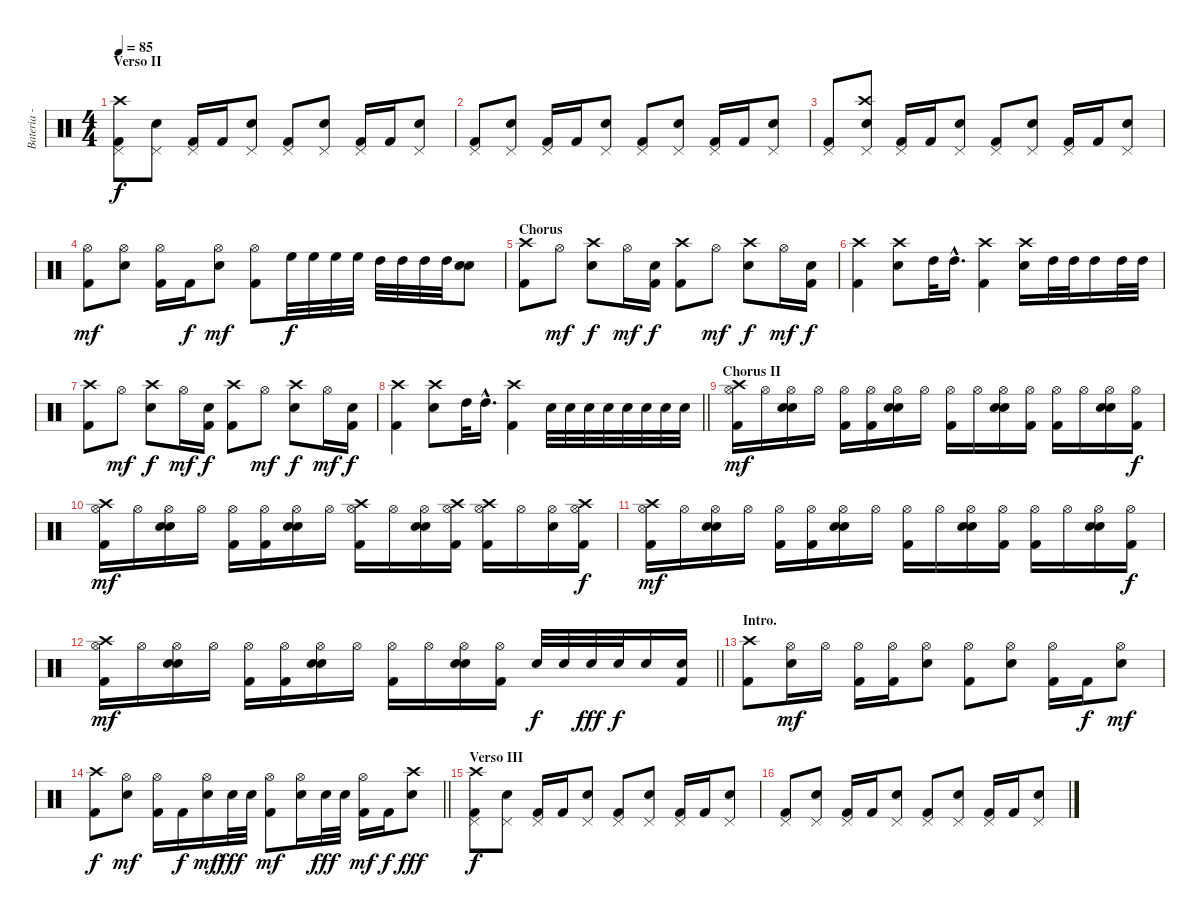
\track ("Bateria - Larzon" "Bateria - ") {instrument percussion}
\staff {score}
\articulation defaults
\ts (4 4)
\section ("" "Verso II")
\tempo 85
\clef neutral
\ks c
("Kick (hit) 2" "Pedal Hi-Hat (hit)" "Crash high (hit)").8{dy f} ("Snare (hit) 2" "Pedal Hi-Hat (hit)").8 ("Kick (hit) 2" "Pedal Hi-Hat (hit)").16 "Kick (hit) 2".16 ("Snare (hit) 2" "Pedal Hi-Hat (hit)").8 ("Kick (hit) 2" "Pedal Hi-Hat (hit)").8 ("Snare (hit) 2" "Pedal Hi-Hat (hit)").8 ("Kick (hit) 2" "Pedal Hi-Hat (hit)").16 "Kick (hit) 2".16 ("Snare (hit) 2" "Pedal Hi-Hat (hit)").8 |
("Kick (hit) 2" "Pedal Hi-Hat (hit)").8 ("Snare (hit) 2" "Pedal Hi-Hat (hit)").8 ("Kick (hit) 2" "Pedal Hi-Hat (hit)").16 "Kick (hit) 2".16 ("Snare (hit) 2" "Pedal Hi-Hat (hit)").8 ("Kick (hit) 2" "Pedal Hi-Hat (hit)").8 ("Snare (hit) 2" "Pedal Hi-Hat (hit)").8 ("Kick (hit) 2" "Pedal Hi-Hat (hit)").16 "Kick (hit) 2".16 ("Snare (hit) 2" "Pedal Hi-Hat (hit)").8 |
("Kick (hit) 2" "Pedal Hi-Hat (hit)").8 ("Snare (hit) 2" "Pedal Hi-Hat (hit)" "Crash high (hit)").8 ("Kick (hit) 2" "Pedal Hi-Hat (hit)").16 "Kick (hit) 2".16 ("Snare (hit) 2" "Pedal Hi-Hat (hit)").8 ("Kick (hit) 2" "Pedal Hi-Hat (hit)").8 ("Snare (hit) 2" "Pedal Hi-Hat (hit)").8 ("Kick (hit) 2" "Pedal Hi-Hat (hit)").16 "Kick (hit) 2".16 ("Snare (hit) 2" "Pedal Hi-Hat (hit)").8 |
("Kick (hit) 2" "Hi-Hat (open)").8{dy mf} ("Snare (hit) 2" "Hi-Hat (open)").8 ("Kick (hit) 2" "Hi-Hat (open)").16 "Kick (hit) 2".16{dy f} ("Snare (hit) 2" "Hi-Hat (open)").8{dy mf} ("Kick (hit) 2" "Hi-Hat (open)").8 "High Floor Tom (hit)".32{dy f} "High Floor Tom (hit)".32 "High Floor Tom (hit)".32 "High Floor Tom (hit)".32 "High Tom (hit)".32 "High Tom (hit)".32 "High Tom (hit)".32 "High Tom (hit)".32 ("Snare (hit) 2" "Snare (hit) 2").8 |
\section ("" "Chorus")
("Crash high (hit)" "Kick (hit) 2").8 "Hi-Hat (open)".8{dy mf} ("Crash high (hit)" "Snare (hit) 2").8{dy f} "Hi-Hat (open)".16{dy mf} ("Snare (hit) 2" "Kick (hit) 2").16{dy f} ("Crash high (hit)" "Kick (hit) 2").8 "Hi-Hat (open)".8{dy mf} ("Crash high (hit)" "Snare (hit) 2").8{dy f} "Hi-Hat (open)".16{dy mf} ("Snare (hit) 2" "Kick (hit) 2").16{dy f} |
("Crash high (hit)" "Kick (hit) 2").4 ("Crash high (hit)" "Snare (hit) 2").8 "High Tom (hit)".32 "High Tom (hit)"{hac}.16{d} ("Crash high (hit)" "Kick (hit) 2").4 ("Crash high (hit)" "Snare (hit) 2").16 "High Tom (hit)".32 "High Tom (hit)".32 "High Tom (hit)".16 "High Tom (hit)".32 "High Tom (hit)".32 |
("Crash high (hit)" "Kick (hit) 2").8 "Hi-Hat (open)".8{dy mf} ("Crash high (hit)" "Snare (hit) 2").8{dy f} "Hi-Hat (open)".16{dy mf} ("Snare (hit) 2" "Kick (hit) 2").16{dy f} ("Crash high (hit)" "Kick (hit) 2").8 "Hi-Hat (open)".8{dy mf} ("Crash high (hit)" "Snare (hit) 2").8{dy f} "Hi-Hat (open)".16{dy mf} ("Snare (hit) 2" "Kick (hit) 2").16{dy f} |
\barLineRight lightlight
("Crash high (hit)" "Kick (hit) 2").4 ("Crash high (hit)" "Snare (hit) 2").8 "High Tom (hit)".32 "High Tom (hit)"{hac}.16{d} ("Crash high (hit)" "Kick (hit) 2").4 "Snare (hit) 2".32 "Snare (hit) 2".32 "Snare (hit) 2".32 "Snare (hit) 2".32 "Snare (hit) 2".32 "Snare (hit) 2".32 "Snare (hit) 2".32 "Snare (hit) 2".32 |
\section ("" "Chorus II")
("Kick (hit) 2" "Crash high (hit)" "Hi-Hat (open)").16{dy mf} "Hi-Hat (open)".16 ("Snare (hit) 2" "Snare (hit) 2" "Hi-Hat (open)").16 "Hi-Hat (open)".16 ("Kick (hit) 2" "Hi-Hat (open)").16 ("Kick (hit) 2" "Hi-Hat (open)").16 ("Snare (hit) 2" "Snare (hit) 2" "Hi-Hat (open)").16 "Hi-Hat (open)".16 ("Kick (hit) 2" "Hi-Hat (open)").16 "Hi-Hat (open)".16 ("Snare (hit) 2" "Snare (hit) 2" "Hi-Hat (open)").16 ("Kick (hit) 2" "Hi-Hat (open)").16 ("Kick (hit) 2" "Hi-Hat (open)").16 "Hi-Hat (open)".16 ("Snare (hit) 2" "Snare (hit) 2" "Hi-Hat (open)").16 ("Kick (hit) 2" "Hi-Hat (open)").16{dy f} |
("Kick (hit) 2" "Crash high (hit)" "Hi-Hat (open)").16{dy mf} "Hi-Hat (open)".16 ("Snare (hit) 2" "Snare (hit) 2" "Hi-Hat (open)").16 "Hi-Hat (open)".16 ("Kick (hit) 2" "Hi-Hat (open)").16 ("Kick (hit) 2" "Hi-Hat (open)").16 ("Snare (hit) 2" "Snare (hit) 2" "Hi-Hat (open)").16 "Hi-Hat (open)".16 ("Kick (hit) 2" "Crash high (hit)" "Hi-Hat (open)").16 "Hi-Hat (open)".16 ("Snare (hit) 2" "Snare (hit) 2" "Hi-Hat (open)").16 ("Kick (hit) 2" "Crash high (hit)" "Hi-Hat (open)").16 ("Kick (hit) 2" "Crash high (hit)" "Hi-Hat (open)").16 "Hi-Hat (open)".16 ("Snare (hit) 2" "Hi-Hat (open)").16 ("Kick (hit) 2" "Crash high (hit)" "Hi-Hat (open)").16{dy f} |
("Kick (hit) 2" "Crash high (hit)" "Hi-Hat (open)").16{dy mf} "Hi-Hat (open)".16 ("Snare (hit) 2" "Snare (hit) 2" "Hi-Hat (open)").16 "Hi-Hat (open)".16 ("Kick (hit) 2" "Hi-Hat (open)").16 ("Kick (hit) 2" "Hi-Hat (open)").16 ("Snare (hit) 2" "Snare (hit) 2" "Hi-Hat (open)").16 "Hi-Hat (open)".16 ("Kick (hit) 2" "Hi-Hat (open)").16 "Hi-Hat (open)".16 ("Snare (hit) 2" "Snare (hit) 2" "Hi-Hat (open)").16 ("Kick (hit) 2" "Hi-Hat (open)").16 ("Kick (hit) 2" "Hi-Hat (open)").16 "Hi-Hat (open)".16 ("Snare (hit) 2" "Snare (hit) 2" "Hi-Hat (open)").16 ("Kick (hit) 2" "Hi-Hat (open)").16{dy f} |
\barLineRight lightlight
("Kick (hit) 2" "Crash high (hit)" "Hi-Hat (open)").16{dy mf} "Hi-Hat (open)".16 ("Snare (hit) 2" "Snare (hit) 2" "Hi-Hat (open)").16 "Hi-Hat (open)".16 ("Kick (hit) 2" "Hi-Hat (open)").16 ("Kick (hit) 2" "Hi-Hat (open)").16 ("Snare (hit) 2" "Snare (hit) 2" "Hi-Hat (open)").16 "Hi-Hat (open)".16 ("Kick (hit) 2" "Hi-Hat (open)").16 "Hi-Hat (open)".16 ("Snare (hit) 2" "Snare (hit) 2" "Hi-Hat (open)").16 ("Kick (hit) 2" "Hi-Hat (open)").16 "Snare (hit) 2".32{dy f} "Snare (hit) 2".32 "Snare (hit) 2".32{dy fff} "Snare (hit) 2".32{dy f} "Snare (hit) 2".16 ("Snare (hit) 2" "Kick (hit) 2").16 |
\section ("" "Intro.")
("Kick (hit) 2" "Crash high (hit)").8{volume 13} ("Snare (hit) 2" "Hi-Hat (open)").16{dy mf} "Hi-Hat (open)".16 ("Kick (hit) 2" "Hi-Hat (open)").16 ("Kick (hit) 2" "Hi-Hat (open)").16 ("Snare (hit) 2" "Hi-Hat (open)").8 ("Kick (hit) 2" "Hi-Hat (open)").8 ("Snare (hit) 2" "Hi-Hat (open)").8 ("Kick (hit) 2" "Hi-Hat (open)").16 "Kick (hit) 2".16{dy f} ("Snare (hit) 2" "Hi-Hat (open)").8{dy mf} |
\barLineRight lightlight
("Kick (hit) 2" "Crash high (hit)").8{dy f} ("Snare (hit) 2" "Hi-Hat (open)").8{dy mf} ("Kick (hit) 2" "Hi-Hat (open)").16 "Kick (hit) 2".16{dy f} ("Snare (hit) 2" "Hi-Hat (open)").16{dy mf} "Snare (hit) 2".32{dy fff} "Snare (hit) 2".32 ("Kick (hit) 2" "Hi-Hat (open)").8{dy mf} ("Snare (hit) 2" "Hi-Hat (open)").16 "Snare (hit) 2".32{dy fff} "Snare (hit) 2".32 ("Kick (hit) 2" "Hi-Hat (open)").16{dy mf} "Kick (hit) 2".16{dy f} ("Snare (hit) 2" "Crash high (hit)").8{dy fff} |
\section ("" "Verso III")
("Kick (hit) 2" "Pedal Hi-Hat (hit)" "Crash high (hit)").8{dy f} ("Snare (hit) 2" "Pedal Hi-Hat (hit)").8 ("Kick (hit) 2" "Pedal Hi-Hat (hit)").16 "Kick (hit) 2".16 ("Snare (hit) 2" "Pedal Hi-Hat (hit)").8 ("Kick (hit) 2" "Pedal Hi-Hat (hit)").8 ("Snare (hit) 2" "Pedal Hi-Hat (hit)").8 ("Kick (hit) 2" "Pedal Hi-Hat (hit)").16 "Kick (hit) 2".16 ("Snare (hit) 2" "Pedal Hi-Hat (hit)").8 |
("Kick (hit) 2" "Pedal Hi-Hat (hit)").8 ("Snare (hit) 2" "Pedal Hi-Hat (hit)").8 ("Kick (hit) 2" "Pedal Hi-Hat (hit)").16 "Kick (hit) 2".16 ("Snare (hit) 2" "Pedal Hi-Hat (hit)").8 ("Kick (hit) 2" "Pedal Hi-Hat (hit)").8 ("Snare (hit) 2" "Pedal Hi-Hat (hit)").8 ("Kick (hit) 2" "Pedal Hi-Hat (hit)").16 "Kick (hit) 2".16 ("Snare (hit) 2" "Pedal Hi-Hat (hit)").8
